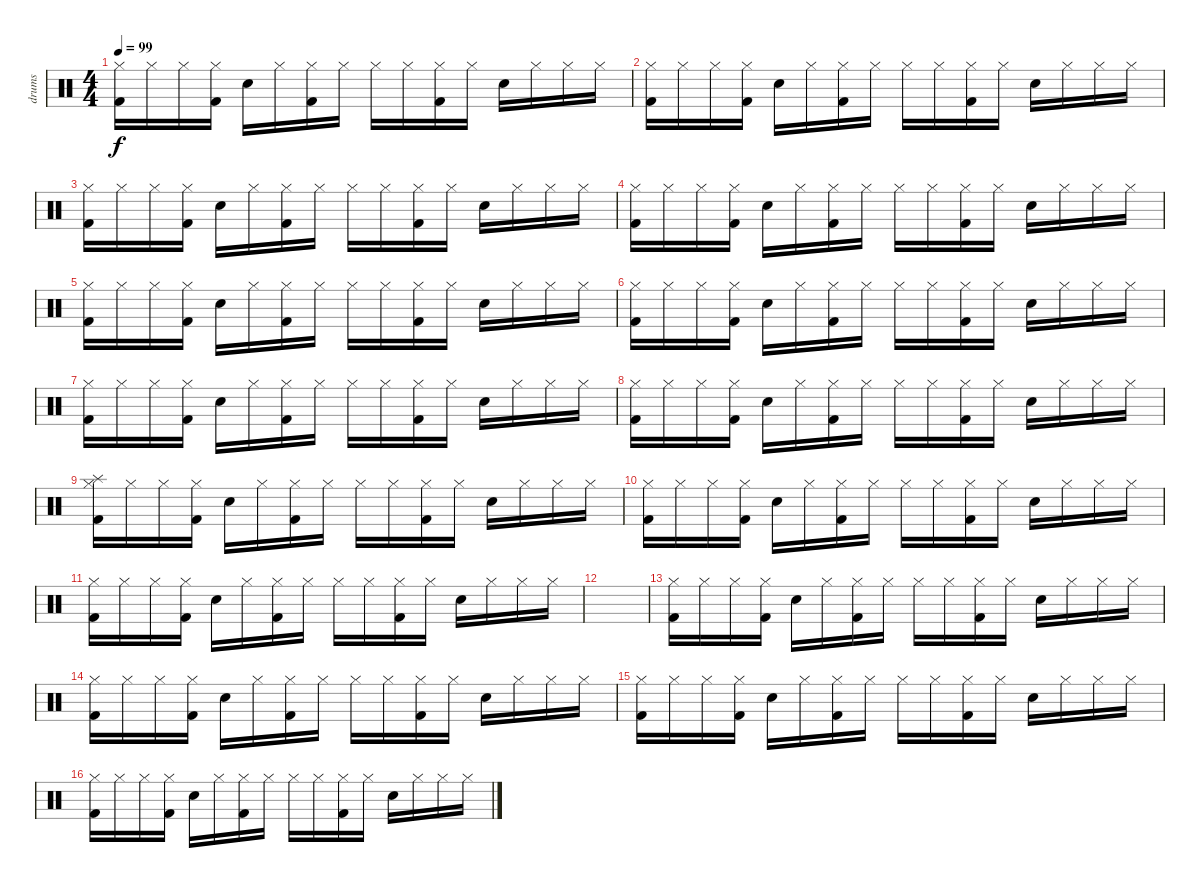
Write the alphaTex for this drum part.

\track ("drums" "drums") {instrument percussion}
\staff {score}
\articulation defaults
\ts (4 4)
\tempo 99
\clef neutral
\ks c
("Hi-Hat (closed)" "Kick (hit) 2").16{dy f} "Hi-Hat (closed)".16 "Hi-Hat (closed)".16 ("Hi-Hat (closed)" "Kick (hit) 2").16 "Snare (hit) 2".16 "Hi-Hat (closed)".16 ("Hi-Hat (closed)" "Kick (hit) 2").16 "Hi-Hat (closed)".16 "Hi-Hat (closed)"{nh}.16 "Hi-Hat (closed)".16 ("Hi-Hat (closed)" "Kick (hit) 2").16 "Hi-Hat (closed)".16 "Snare (hit) 2".16 "Hi-Hat (closed)".16 "Hi-Hat (closed)".16 "Hi-Hat (closed)".16 |
("Hi-Hat (closed)" "Kick (hit) 2").16 "Hi-Hat (closed)".16 "Hi-Hat (closed)".16 ("Hi-Hat (closed)" "Kick (hit) 2").16 "Snare (hit) 2".16 "Hi-Hat (closed)".16 ("Hi-Hat (closed)" "Kick (hit) 2").16 "Hi-Hat (closed)".16 "Hi-Hat (closed)"{nh}.16 "Hi-Hat (closed)".16 ("Hi-Hat (closed)" "Kick (hit) 2").16 "Hi-Hat (closed)".16 "Snare (hit) 2".16 "Hi-Hat (closed)".16 "Hi-Hat (closed)".16 "Hi-Hat (closed)".16 |
("Hi-Hat (closed)" "Kick (hit) 2").16 "Hi-Hat (closed)".16 "Hi-Hat (closed)".16 ("Hi-Hat (closed)" "Kick (hit) 2").16 "Snare (hit) 2".16 "Hi-Hat (closed)".16 ("Hi-Hat (closed)" "Kick (hit) 2").16 "Hi-Hat (closed)".16 "Hi-Hat (closed)"{nh}.16 "Hi-Hat (closed)".16 ("Hi-Hat (closed)" "Kick (hit) 2").16 "Hi-Hat (closed)".16 "Snare (hit) 2".16 "Hi-Hat (closed)".16 "Hi-Hat (closed)".16 "Hi-Hat (closed)".16 |
("Hi-Hat (closed)" "Kick (hit) 2").16 "Hi-Hat (closed)".16 "Hi-Hat (closed)".16 ("Hi-Hat (closed)" "Kick (hit) 2").16 "Snare (hit) 2".16 "Hi-Hat (closed)".16 ("Hi-Hat (closed)" "Kick (hit) 2").16 "Hi-Hat (closed)".16 "Hi-Hat (closed)"{nh}.16 "Hi-Hat (closed)".16 ("Hi-Hat (closed)" "Kick (hit) 2").16 "Hi-Hat (closed)".16 "Snare (hit) 2".16 "Hi-Hat (closed)".16 "Hi-Hat (closed)".16 "Hi-Hat (closed)".16 |
("Hi-Hat (closed)" "Kick (hit) 2").16 "Hi-Hat (closed)".16 "Hi-Hat (closed)".16 ("Hi-Hat (closed)" "Kick (hit) 2").16 "Snare (hit) 2".16 "Hi-Hat (closed)".16 ("Hi-Hat (closed)" "Kick (hit) 2").16 "Hi-Hat (closed)".16 "Hi-Hat (closed)"{nh}.16 "Hi-Hat (closed)".16 ("Hi-Hat (closed)" "Kick (hit) 2").16 "Hi-Hat (closed)".16 "Snare (hit) 2".16 "Hi-Hat (closed)".16 "Hi-Hat (closed)".16 "Hi-Hat (closed)".16 |
("Hi-Hat (closed)" "Kick (hit) 2").16 "Hi-Hat (closed)".16 "Hi-Hat (closed)".16 ("Hi-Hat (closed)" "Kick (hit) 2").16 "Snare (hit) 2".16 "Hi-Hat (closed)".16 ("Hi-Hat (closed)" "Kick (hit) 2").16 "Hi-Hat (closed)".16 "Hi-Hat (closed)"{nh}.16 "Hi-Hat (closed)".16 ("Hi-Hat (closed)" "Kick (hit) 2").16 "Hi-Hat (closed)".16 "Snare (hit) 2".16 "Hi-Hat (closed)".16 "Hi-Hat (closed)".16 "Hi-Hat (closed)".16 |
("Hi-Hat (closed)" "Kick (hit) 2").16 "Hi-Hat (closed)".16 "Hi-Hat (closed)".16 ("Hi-Hat (closed)" "Kick (hit) 2").16 "Snare (hit) 2".16 "Hi-Hat (closed)".16 ("Hi-Hat (closed)" "Kick (hit) 2").16 "Hi-Hat (closed)".16 "Hi-Hat (closed)"{nh}.16 "Hi-Hat (closed)".16 ("Hi-Hat (closed)" "Kick (hit) 2").16 "Hi-Hat (closed)".16 "Snare (hit) 2".16 "Hi-Hat (closed)".16 "Hi-Hat (closed)".16 "Hi-Hat (closed)".16 |
("Hi-Hat (closed)" "Kick (hit) 2").16 "Hi-Hat (closed)".16 "Hi-Hat (closed)".16 ("Hi-Hat (closed)" "Kick (hit) 2").16 "Snare (hit) 2".16 "Hi-Hat (closed)".16 ("Hi-Hat (closed)" "Kick (hit) 2").16 "Hi-Hat (closed)".16 "Hi-Hat (closed)"{nh}.16 "Hi-Hat (closed)".16 ("Hi-Hat (closed)" "Kick (hit) 2").16 "Hi-Hat (closed)".16 "Snare (hit) 2".16 "Hi-Hat (closed)".16 "Hi-Hat (closed)".16 "Hi-Hat (closed)".16 |
("Hi-Hat (closed)" "Kick (hit) 2" "Splash (hit)").16 "Hi-Hat (closed)".16 "Hi-Hat (closed)".16 ("Hi-Hat (closed)" "Kick (hit) 2").16 "Snare (hit) 2".16 "Hi-Hat (closed)".16 ("Hi-Hat (closed)" "Kick (hit) 2").16 "Hi-Hat (closed)".16 "Hi-Hat (closed)"{nh}.16 "Hi-Hat (closed)".16 ("Hi-Hat (closed)" "Kick (hit) 2").16 "Hi-Hat (closed)".16 "Snare (hit) 2".16 "Hi-Hat (closed)".16 "Hi-Hat (closed)".16 "Hi-Hat (closed)".16 |
("Hi-Hat (closed)" "Kick (hit) 2").16 "Hi-Hat (closed)".16 "Hi-Hat (closed)".16 ("Hi-Hat (closed)" "Kick (hit) 2").16 "Snare (hit) 2".16 "Hi-Hat (closed)".16 ("Hi-Hat (closed)" "Kick (hit) 2").16 "Hi-Hat (closed)".16 "Hi-Hat (closed)"{nh}.16 "Hi-Hat (closed)".16 ("Hi-Hat (closed)" "Kick (hit) 2").16 "Hi-Hat (closed)".16 "Snare (hit) 2".16 "Hi-Hat (closed)".16 "Hi-Hat (closed)".16 "Hi-Hat (closed)".16 |
("Hi-Hat (closed)" "Kick (hit) 2").16 "Hi-Hat (closed)".16 "Hi-Hat (closed)".16 ("Hi-Hat (closed)" "Kick (hit) 2").16 "Snare (hit) 2".16 "Hi-Hat (closed)".16 ("Hi-Hat (closed)" "Kick (hit) 2").16 "Hi-Hat (closed)".16 "Hi-Hat (closed)"{nh}.16 "Hi-Hat (closed)".16 ("Hi-Hat (closed)" "Kick (hit) 2").16 "Hi-Hat (closed)".16 "Snare (hit) 2".16 "Hi-Hat (closed)".16 "Hi-Hat (closed)".16 "Hi-Hat (closed)".16 |
|
("Hi-Hat (closed)" "Kick (hit) 2").16 "Hi-Hat (closed)".16 "Hi-Hat (closed)".16 ("Hi-Hat (closed)" "Kick (hit) 2").16 "Snare (hit) 2".16 "Hi-Hat (closed)".16 ("Hi-Hat (closed)" "Kick (hit) 2").16 "Hi-Hat (closed)".16 "Hi-Hat (closed)"{nh}.16 "Hi-Hat (closed)".16 ("Hi-Hat (closed)" "Kick (hit) 2").16 "Hi-Hat (closed)".16 "Snare (hit) 2".16 "Hi-Hat (closed)".16 "Hi-Hat (closed)".16 "Hi-Hat (closed)".16 |
("Hi-Hat (closed)" "Kick (hit) 2").16 "Hi-Hat (closed)".16 "Hi-Hat (closed)".16 ("Hi-Hat (closed)" "Kick (hit) 2").16 "Snare (hit) 2".16 "Hi-Hat (closed)".16 ("Hi-Hat (closed)" "Kick (hit) 2").16 "Hi-Hat (closed)".16 "Hi-Hat (closed)"{nh}.16 "Hi-Hat (closed)".16 ("Hi-Hat (closed)" "Kick (hit) 2").16 "Hi-Hat (closed)".16 "Snare (hit) 2".16 "Hi-Hat (closed)".16 "Hi-Hat (closed)".16 "Hi-Hat (closed)".16 |
("Hi-Hat (closed)" "Kick (hit) 2").16 "Hi-Hat (closed)".16 "Hi-Hat (closed)".16 ("Hi-Hat (closed)" "Kick (hit) 2").16 "Snare (hit) 2".16 "Hi-Hat (closed)".16 ("Hi-Hat (closed)" "Kick (hit) 2").16 "Hi-Hat (closed)".16 "Hi-Hat (closed)"{nh}.16 "Hi-Hat (closed)".16 ("Hi-Hat (closed)" "Kick (hit) 2").16 "Hi-Hat (closed)".16 "Snare (hit) 2".16 "Hi-Hat (closed)".16 "Hi-Hat (closed)".16 "Hi-Hat (closed)".16 |
("Hi-Hat (closed)" "Kick (hit) 2").16 "Hi-Hat (closed)".16 "Hi-Hat (closed)".16 ("Hi-Hat (closed)" "Kick (hit) 2").16 "Snare (hit) 2".16 "Hi-Hat (closed)".16 ("Hi-Hat (closed)" "Kick (hit) 2").16 "Hi-Hat (closed)".16 "Hi-Hat (closed)"{nh}.16 "Hi-Hat (closed)".16 ("Hi-Hat (closed)" "Kick (hit) 2").16 "Hi-Hat (closed)".16 "Snare (hit) 2".16 "Hi-Hat (closed)".16 "Hi-Hat (closed)".16 "Hi-Hat (closed)".16
